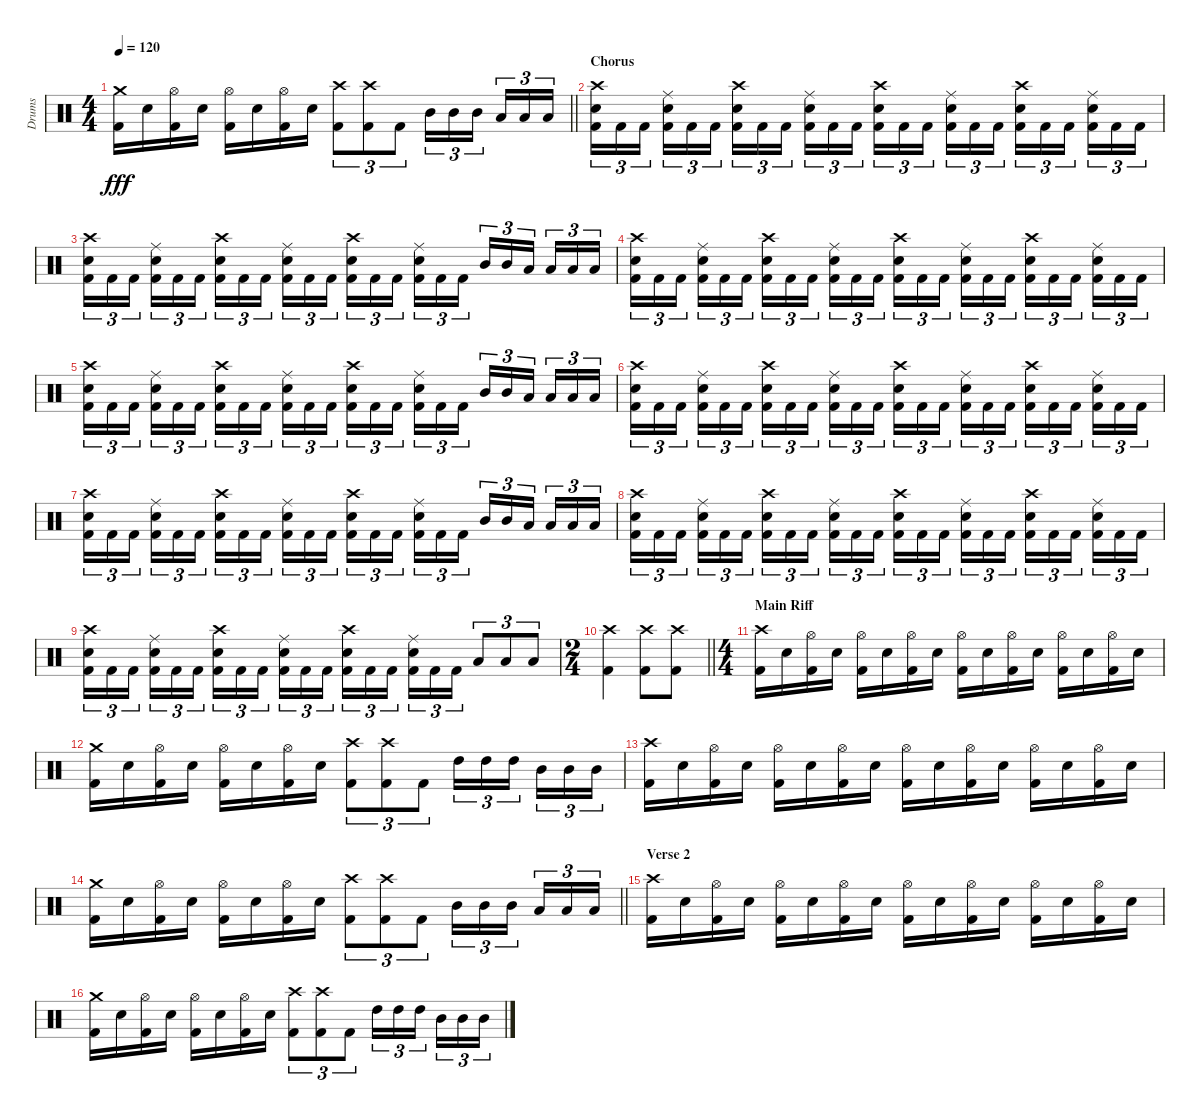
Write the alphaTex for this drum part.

\track ("Drums" "Drums") {instrument percussion}
\staff {score}
\articulation defaults
\ts (4 4)
\tempo 120
\clef neutral
\barLineRight lightlight
\ks c
("Crash medium (hit)" "Kick (hit) 2").16{dy fff} "Snare (hit) 2".16 ("Hi-Hat (open)" "Kick (hit) 2").16 "Snare (hit) 2".16 ("Hi-Hat (open)" "Kick (hit) 2").16 "Snare (hit) 2".16 ("Hi-Hat (open)" "Kick (hit) 2").16 "Snare (hit) 2".16 ("Crash high (hit)" "Kick (hit) 2").8{tu (3 2)} ("Crash high (hit)" "Kick (hit) 2").8{tu (3 2)} "Kick (hit) 2".8{tu (3 2)} "Mid Tom (hit)".16{tu (3 2)} "Mid Tom (hit)".16{tu (3 2)} "Mid Tom (hit)".16{tu (3 2) beam splitsecondary} "Low Tom (hit)".16{tu (3 2)} "Low Tom (hit)".16{tu (3 2)} "Low Tom (hit)".16{tu (3 2)} |
\section ("" "Chorus")
("Crash high (hit)" "Snare (hit) 2" "Kick (hit) 2").16{tu (3 2)} "Kick (hit) 2".16{tu (3 2)} "Kick (hit) 2".16{tu (3 2) beam splitsecondary} ("Ride (middle)" "Snare (hit) 2" "Kick (hit) 2").16{tu (3 2)} "Kick (hit) 2".16{tu (3 2)} "Kick (hit) 2".16{tu (3 2)} ("Crash high (hit)" "Snare (hit) 2" "Kick (hit) 2").16{tu (3 2)} "Kick (hit) 2".16{tu (3 2)} "Kick (hit) 2".16{tu (3 2) beam splitsecondary} ("Ride (middle)" "Snare (hit) 2" "Kick (hit) 2").16{tu (3 2)} "Kick (hit) 2".16{tu (3 2)} "Kick (hit) 2".16{tu (3 2)} ("Crash high (hit)" "Snare (hit) 2" "Kick (hit) 2").16{tu (3 2)} "Kick (hit) 2".16{tu (3 2)} "Kick (hit) 2".16{tu (3 2) beam splitsecondary} ("Ride (middle)" "Snare (hit) 2" "Kick (hit) 2").16{tu (3 2)} "Kick (hit) 2".16{tu (3 2)} "Kick (hit) 2".16{tu (3 2)} ("Crash high (hit)" "Snare (hit) 2" "Kick (hit) 2").16{tu (3 2)} "Kick (hit) 2".16{tu (3 2)} "Kick (hit) 2".16{tu (3 2) beam splitsecondary} ("Ride (middle)" "Snare (hit) 2" "Kick (hit) 2").16{tu (3 2)} "Kick (hit) 2".16{tu (3 2)} "Kick (hit) 2".16{tu (3 2)} |
("Crash high (hit)" "Snare (hit) 2" "Kick (hit) 2").16{tu (3 2)} "Kick (hit) 2".16{tu (3 2)} "Kick (hit) 2".16{tu (3 2) beam splitsecondary} ("Ride (middle)" "Snare (hit) 2" "Kick (hit) 2").16{tu (3 2)} "Kick (hit) 2".16{tu (3 2)} "Kick (hit) 2".16{tu (3 2)} ("Crash high (hit)" "Snare (hit) 2" "Kick (hit) 2").16{tu (3 2)} "Kick (hit) 2".16{tu (3 2)} "Kick (hit) 2".16{tu (3 2) beam splitsecondary} ("Ride (middle)" "Snare (hit) 2" "Kick (hit) 2").16{tu (3 2)} "Kick (hit) 2".16{tu (3 2)} "Kick (hit) 2".16{tu (3 2)} ("Crash high (hit)" "Snare (hit) 2" "Kick (hit) 2").16{tu (3 2)} "Kick (hit) 2".16{tu (3 2)} "Kick (hit) 2".16{tu (3 2) beam splitsecondary} ("Ride (middle)" "Snare (hit) 2" "Kick (hit) 2").16{tu (3 2)} "Kick (hit) 2".16{tu (3 2)} "Kick (hit) 2".16{tu (3 2)} "Mid Tom (hit)".16{tu (3 2)} "Mid Tom (hit)".16{tu (3 2)} "Low Tom (hit)".16{tu (3 2) beam splitsecondary} "Low Tom (hit)".16{tu (3 2)} "Low Tom (hit)".16{tu (3 2)} "Low Tom (hit)".16{tu (3 2)} |
("Crash high (hit)" "Snare (hit) 2" "Kick (hit) 2").16{tu (3 2)} "Kick (hit) 2".16{tu (3 2)} "Kick (hit) 2".16{tu (3 2) beam splitsecondary} ("Ride (middle)" "Snare (hit) 2" "Kick (hit) 2").16{tu (3 2)} "Kick (hit) 2".16{tu (3 2)} "Kick (hit) 2".16{tu (3 2)} ("Crash high (hit)" "Snare (hit) 2" "Kick (hit) 2").16{tu (3 2)} "Kick (hit) 2".16{tu (3 2)} "Kick (hit) 2".16{tu (3 2) beam splitsecondary} ("Ride (middle)" "Snare (hit) 2" "Kick (hit) 2").16{tu (3 2)} "Kick (hit) 2".16{tu (3 2)} "Kick (hit) 2".16{tu (3 2)} ("Crash high (hit)" "Snare (hit) 2" "Kick (hit) 2").16{tu (3 2)} "Kick (hit) 2".16{tu (3 2)} "Kick (hit) 2".16{tu (3 2) beam splitsecondary} ("Ride (middle)" "Snare (hit) 2" "Kick (hit) 2").16{tu (3 2)} "Kick (hit) 2".16{tu (3 2)} "Kick (hit) 2".16{tu (3 2)} ("Crash high (hit)" "Snare (hit) 2" "Kick (hit) 2").16{tu (3 2)} "Kick (hit) 2".16{tu (3 2)} "Kick (hit) 2".16{tu (3 2) beam splitsecondary} ("Ride (middle)" "Snare (hit) 2" "Kick (hit) 2").16{tu (3 2)} "Kick (hit) 2".16{tu (3 2)} "Kick (hit) 2".16{tu (3 2)} |
("Crash high (hit)" "Snare (hit) 2" "Kick (hit) 2").16{tu (3 2)} "Kick (hit) 2".16{tu (3 2)} "Kick (hit) 2".16{tu (3 2) beam splitsecondary} ("Ride (middle)" "Snare (hit) 2" "Kick (hit) 2").16{tu (3 2)} "Kick (hit) 2".16{tu (3 2)} "Kick (hit) 2".16{tu (3 2)} ("Crash high (hit)" "Snare (hit) 2" "Kick (hit) 2").16{tu (3 2)} "Kick (hit) 2".16{tu (3 2)} "Kick (hit) 2".16{tu (3 2) beam splitsecondary} ("Ride (middle)" "Snare (hit) 2" "Kick (hit) 2").16{tu (3 2)} "Kick (hit) 2".16{tu (3 2)} "Kick (hit) 2".16{tu (3 2)} ("Crash high (hit)" "Snare (hit) 2" "Kick (hit) 2").16{tu (3 2)} "Kick (hit) 2".16{tu (3 2)} "Kick (hit) 2".16{tu (3 2) beam splitsecondary} ("Ride (middle)" "Snare (hit) 2" "Kick (hit) 2").16{tu (3 2)} "Kick (hit) 2".16{tu (3 2)} "Kick (hit) 2".16{tu (3 2)} "Mid Tom (hit)".16{tu (3 2)} "Mid Tom (hit)".16{tu (3 2)} "Low Tom (hit)".16{tu (3 2) beam splitsecondary} "Low Tom (hit)".16{tu (3 2)} "Low Tom (hit)".16{tu (3 2)} "Low Tom (hit)".16{tu (3 2)} |
("Crash high (hit)" "Snare (hit) 2" "Kick (hit) 2").16{tu (3 2)} "Kick (hit) 2".16{tu (3 2)} "Kick (hit) 2".16{tu (3 2) beam splitsecondary} ("Ride (middle)" "Snare (hit) 2" "Kick (hit) 2").16{tu (3 2)} "Kick (hit) 2".16{tu (3 2)} "Kick (hit) 2".16{tu (3 2)} ("Crash high (hit)" "Snare (hit) 2" "Kick (hit) 2").16{tu (3 2)} "Kick (hit) 2".16{tu (3 2)} "Kick (hit) 2".16{tu (3 2) beam splitsecondary} ("Ride (middle)" "Snare (hit) 2" "Kick (hit) 2").16{tu (3 2)} "Kick (hit) 2".16{tu (3 2)} "Kick (hit) 2".16{tu (3 2)} ("Crash high (hit)" "Snare (hit) 2" "Kick (hit) 2").16{tu (3 2)} "Kick (hit) 2".16{tu (3 2)} "Kick (hit) 2".16{tu (3 2) beam splitsecondary} ("Ride (middle)" "Snare (hit) 2" "Kick (hit) 2").16{tu (3 2)} "Kick (hit) 2".16{tu (3 2)} "Kick (hit) 2".16{tu (3 2)} ("Crash high (hit)" "Snare (hit) 2" "Kick (hit) 2").16{tu (3 2)} "Kick (hit) 2".16{tu (3 2)} "Kick (hit) 2".16{tu (3 2) beam splitsecondary} ("Ride (middle)" "Snare (hit) 2" "Kick (hit) 2").16{tu (3 2)} "Kick (hit) 2".16{tu (3 2)} "Kick (hit) 2".16{tu (3 2)} |
("Crash high (hit)" "Snare (hit) 2" "Kick (hit) 2").16{tu (3 2)} "Kick (hit) 2".16{tu (3 2)} "Kick (hit) 2".16{tu (3 2) beam splitsecondary} ("Ride (middle)" "Snare (hit) 2" "Kick (hit) 2").16{tu (3 2)} "Kick (hit) 2".16{tu (3 2)} "Kick (hit) 2".16{tu (3 2)} ("Crash high (hit)" "Snare (hit) 2" "Kick (hit) 2").16{tu (3 2)} "Kick (hit) 2".16{tu (3 2)} "Kick (hit) 2".16{tu (3 2) beam splitsecondary} ("Ride (middle)" "Snare (hit) 2" "Kick (hit) 2").16{tu (3 2)} "Kick (hit) 2".16{tu (3 2)} "Kick (hit) 2".16{tu (3 2)} ("Crash high (hit)" "Snare (hit) 2" "Kick (hit) 2").16{tu (3 2)} "Kick (hit) 2".16{tu (3 2)} "Kick (hit) 2".16{tu (3 2) beam splitsecondary} ("Ride (middle)" "Snare (hit) 2" "Kick (hit) 2").16{tu (3 2)} "Kick (hit) 2".16{tu (3 2)} "Kick (hit) 2".16{tu (3 2)} "Mid Tom (hit)".16{tu (3 2)} "Mid Tom (hit)".16{tu (3 2)} "Low Tom (hit)".16{tu (3 2) beam splitsecondary} "Low Tom (hit)".16{tu (3 2)} "Low Tom (hit)".16{tu (3 2)} "Low Tom (hit)".16{tu (3 2)} |
("Crash high (hit)" "Snare (hit) 2" "Kick (hit) 2").16{tu (3 2)} "Kick (hit) 2".16{tu (3 2)} "Kick (hit) 2".16{tu (3 2) beam splitsecondary} ("Ride (middle)" "Snare (hit) 2" "Kick (hit) 2").16{tu (3 2)} "Kick (hit) 2".16{tu (3 2)} "Kick (hit) 2".16{tu (3 2)} ("Crash high (hit)" "Snare (hit) 2" "Kick (hit) 2").16{tu (3 2)} "Kick (hit) 2".16{tu (3 2)} "Kick (hit) 2".16{tu (3 2) beam splitsecondary} ("Ride (middle)" "Snare (hit) 2" "Kick (hit) 2").16{tu (3 2)} "Kick (hit) 2".16{tu (3 2)} "Kick (hit) 2".16{tu (3 2)} ("Crash high (hit)" "Snare (hit) 2" "Kick (hit) 2").16{tu (3 2)} "Kick (hit) 2".16{tu (3 2)} "Kick (hit) 2".16{tu (3 2) beam splitsecondary} ("Ride (middle)" "Snare (hit) 2" "Kick (hit) 2").16{tu (3 2)} "Kick (hit) 2".16{tu (3 2)} "Kick (hit) 2".16{tu (3 2)} ("Crash high (hit)" "Snare (hit) 2" "Kick (hit) 2").16{tu (3 2)} "Kick (hit) 2".16{tu (3 2)} "Kick (hit) 2".16{tu (3 2) beam splitsecondary} ("Ride (middle)" "Snare (hit) 2" "Kick (hit) 2").16{tu (3 2)} "Kick (hit) 2".16{tu (3 2)} "Kick (hit) 2".16{tu (3 2)} |
("Crash high (hit)" "Snare (hit) 2" "Kick (hit) 2").16{tu (3 2)} "Kick (hit) 2".16{tu (3 2)} "Kick (hit) 2".16{tu (3 2) beam splitsecondary} ("Ride (middle)" "Snare (hit) 2" "Kick (hit) 2").16{tu (3 2)} "Kick (hit) 2".16{tu (3 2)} "Kick (hit) 2".16{tu (3 2)} ("Crash high (hit)" "Snare (hit) 2" "Kick (hit) 2").16{tu (3 2)} "Kick (hit) 2".16{tu (3 2)} "Kick (hit) 2".16{tu (3 2) beam splitsecondary} ("Ride (middle)" "Snare (hit) 2" "Kick (hit) 2").16{tu (3 2)} "Kick (hit) 2".16{tu (3 2)} "Kick (hit) 2".16{tu (3 2)} ("Crash high (hit)" "Snare (hit) 2" "Kick (hit) 2").16{tu (3 2)} "Kick (hit) 2".16{tu (3 2)} "Kick (hit) 2".16{tu (3 2) beam splitsecondary} ("Ride (middle)" "Snare (hit) 2" "Kick (hit) 2").16{tu (3 2)} "Kick (hit) 2".16{tu (3 2)} "Kick (hit) 2".16{tu (3 2)} "Low Tom (hit)".8{tu (3 2)} "Low Tom (hit)".8{tu (3 2)} "Low Tom (hit)".8{tu (3 2)} |
\ts (2 4)
\barLineRight lightlight
("Crash high (hit)" "Kick (hit) 2").4 ("Crash high (hit)" "Kick (hit) 2").8 ("Crash high (hit)" "Kick (hit) 2").8 |
\ts (4 4)
\section ("" "Main Riff")
("Crash high (hit)" "Kick (hit) 2").16 "Snare (hit) 2".16 ("Hi-Hat (open)" "Kick (hit) 2").16 "Snare (hit) 2".16 ("Hi-Hat (open)" "Kick (hit) 2").16 "Snare (hit) 2".16 ("Hi-Hat (open)" "Kick (hit) 2").16 "Snare (hit) 2".16 ("Hi-Hat (open)" "Kick (hit) 2").16 "Snare (hit) 2".16 ("Hi-Hat (open)" "Kick (hit) 2").16 "Snare (hit) 2".16 ("Hi-Hat (open)" "Kick (hit) 2").16 "Snare (hit) 2".16 ("Hi-Hat (open)" "Kick (hit) 2").16 "Snare (hit) 2".16 |
("Crash medium (hit)" "Kick (hit) 2").16 "Snare (hit) 2".16 ("Hi-Hat (open)" "Kick (hit) 2").16 "Snare (hit) 2".16 ("Hi-Hat (open)" "Kick (hit) 2").16 "Snare (hit) 2".16 ("Hi-Hat (open)" "Kick (hit) 2").16 "Snare (hit) 2".16 ("Crash high (hit)" "Kick (hit) 2").8{tu (3 2)} ("Crash high (hit)" "Kick (hit) 2").8{tu (3 2)} "Kick (hit) 2".8{tu (3 2)} "High Tom (hit)".16{tu (3 2)} "High Tom (hit)".16{tu (3 2)} "High Tom (hit)".16{tu (3 2) beam splitsecondary} "Mid Tom (hit)".16{tu (3 2)} "Mid Tom (hit)".16{tu (3 2)} "Mid Tom (hit)".16{tu (3 2)} |
("Crash high (hit)" "Kick (hit) 2").16 "Snare (hit) 2".16 ("Hi-Hat (open)" "Kick (hit) 2").16 "Snare (hit) 2".16 ("Hi-Hat (open)" "Kick (hit) 2").16 "Snare (hit) 2".16 ("Hi-Hat (open)" "Kick (hit) 2").16 "Snare (hit) 2".16 ("Hi-Hat (open)" "Kick (hit) 2").16 "Snare (hit) 2".16 ("Hi-Hat (open)" "Kick (hit) 2").16 "Snare (hit) 2".16 ("Hi-Hat (open)" "Kick (hit) 2").16 "Snare (hit) 2".16 ("Hi-Hat (open)" "Kick (hit) 2").16 "Snare (hit) 2".16 |
\barLineRight lightlight
("Crash medium (hit)" "Kick (hit) 2").16 "Snare (hit) 2".16 ("Hi-Hat (open)" "Kick (hit) 2").16 "Snare (hit) 2".16 ("Hi-Hat (open)" "Kick (hit) 2").16 "Snare (hit) 2".16 ("Hi-Hat (open)" "Kick (hit) 2").16 "Snare (hit) 2".16 ("Crash high (hit)" "Kick (hit) 2").8{tu (3 2)} ("Crash high (hit)" "Kick (hit) 2").8{tu (3 2)} "Kick (hit) 2".8{tu (3 2)} "Mid Tom (hit)".16{tu (3 2)} "Mid Tom (hit)".16{tu (3 2)} "Mid Tom (hit)".16{tu (3 2) beam splitsecondary} "Low Tom (hit)".16{tu (3 2)} "Low Tom (hit)".16{tu (3 2)} "Low Tom (hit)".16{tu (3 2)} |
\section ("" "Verse 2")
("Crash high (hit)" "Kick (hit) 2").16 "Snare (hit) 2".16 ("Hi-Hat (open)" "Kick (hit) 2").16 "Snare (hit) 2".16 ("Hi-Hat (open)" "Kick (hit) 2").16 "Snare (hit) 2".16 ("Hi-Hat (open)" "Kick (hit) 2").16 "Snare (hit) 2".16 ("Hi-Hat (open)" "Kick (hit) 2").16 "Snare (hit) 2".16 ("Hi-Hat (open)" "Kick (hit) 2").16 "Snare (hit) 2".16 ("Hi-Hat (open)" "Kick (hit) 2").16 "Snare (hit) 2".16 ("Hi-Hat (open)" "Kick (hit) 2").16 "Snare (hit) 2".16 |
("Crash medium (hit)" "Kick (hit) 2").16 "Snare (hit) 2".16 ("Hi-Hat (open)" "Kick (hit) 2").16 "Snare (hit) 2".16 ("Hi-Hat (open)" "Kick (hit) 2").16 "Snare (hit) 2".16 ("Hi-Hat (open)" "Kick (hit) 2").16 "Snare (hit) 2".16 ("Crash high (hit)" "Kick (hit) 2").8{tu (3 2)} ("Crash high (hit)" "Kick (hit) 2").8{tu (3 2)} "Kick (hit) 2".8{tu (3 2)} "High Tom (hit)".16{tu (3 2)} "High Tom (hit)".16{tu (3 2)} "High Tom (hit)".16{tu (3 2) beam splitsecondary} "Mid Tom (hit)".16{tu (3 2)} "Mid Tom (hit)".16{tu (3 2)} "Mid Tom (hit)".16{tu (3 2)}
